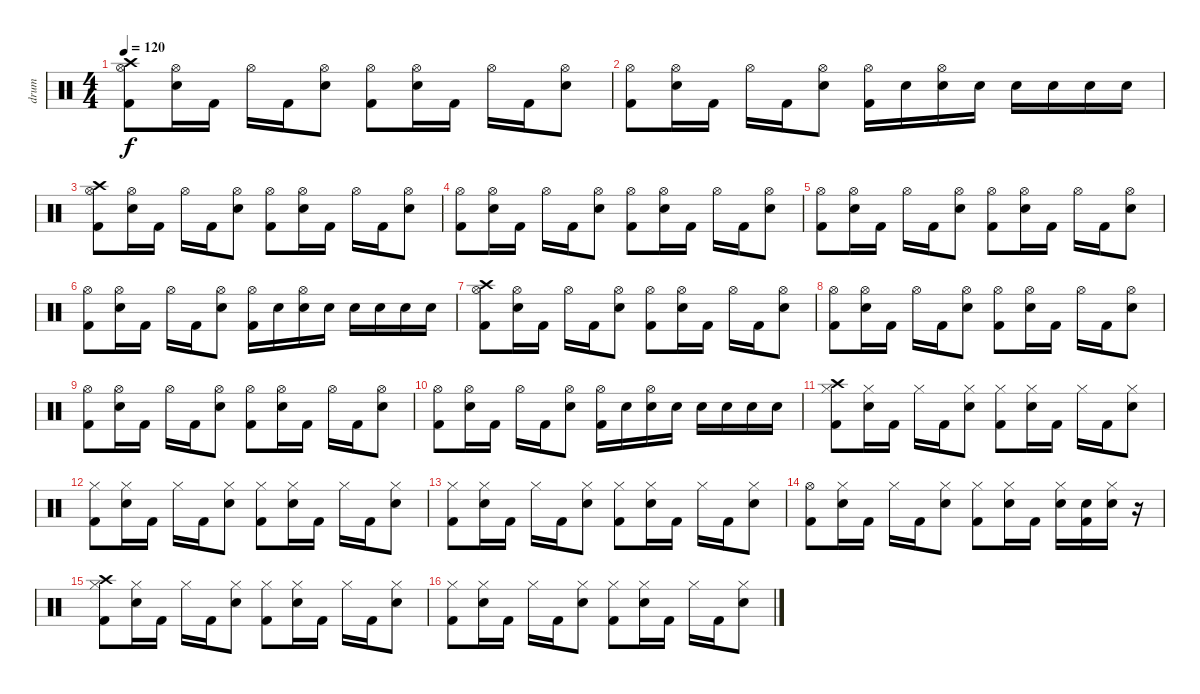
\track ("drum" "drum") {instrument percussion}
\staff {score}
\articulation defaults
\ts (4 4)
\tempo 120
\clef neutral
\ks c
("Crash high (hit)" "Kick (hit) 2" "Hi-Hat (open)").8{dy f} ("Snare (hit) 2" "Hi-Hat (open)").16 "Kick (hit) 2".16 "Hi-Hat (open)".16 "Kick (hit) 2".16 ("Snare (hit) 2" "Hi-Hat (open)").8 ("Kick (hit) 2" "Hi-Hat (open)").8 ("Snare (hit) 2" "Hi-Hat (open)").16 "Kick (hit) 2".16 "Hi-Hat (open)".16 "Kick (hit) 2".16 ("Snare (hit) 2" "Hi-Hat (open)").8 |
("Kick (hit) 2" "Hi-Hat (open)").8 ("Snare (hit) 2" "Hi-Hat (open)").16 "Kick (hit) 2".16 "Hi-Hat (open)".16 "Kick (hit) 2".16 ("Snare (hit) 2" "Hi-Hat (open)").8 ("Kick (hit) 2" "Hi-Hat (open)").16 "Snare (hit) 2".16 ("Snare (hit) 2" "Hi-Hat (open)").16 "Snare (hit) 2".16 "Snare (hit) 2".16 "Snare (hit) 2".16 "Snare (hit) 2".16 "Snare (hit) 2".16 |
("Crash high (hit)" "Kick (hit) 2" "Hi-Hat (open)").8 ("Snare (hit) 2" "Hi-Hat (open)").16 "Kick (hit) 2".16 "Hi-Hat (open)".16 "Kick (hit) 2".16 ("Snare (hit) 2" "Hi-Hat (open)").8 ("Kick (hit) 2" "Hi-Hat (open)").8 ("Snare (hit) 2" "Hi-Hat (open)").16 "Kick (hit) 2".16 "Hi-Hat (open)".16 "Kick (hit) 2".16 ("Snare (hit) 2" "Hi-Hat (open)").8 |
("Kick (hit) 2" "Hi-Hat (open)").8 ("Snare (hit) 2" "Hi-Hat (open)").16 "Kick (hit) 2".16 "Hi-Hat (open)".16 "Kick (hit) 2".16 ("Snare (hit) 2" "Hi-Hat (open)").8 ("Kick (hit) 2" "Hi-Hat (open)").8 ("Snare (hit) 2" "Hi-Hat (open)").16 "Kick (hit) 2".16 "Hi-Hat (open)".16 "Kick (hit) 2".16 ("Snare (hit) 2" "Hi-Hat (open)").8 |
("Kick (hit) 2" "Hi-Hat (open)").8 ("Snare (hit) 2" "Hi-Hat (open)").16 "Kick (hit) 2".16 "Hi-Hat (open)".16 "Kick (hit) 2".16 ("Snare (hit) 2" "Hi-Hat (open)").8 ("Kick (hit) 2" "Hi-Hat (open)").8 ("Snare (hit) 2" "Hi-Hat (open)").16 "Kick (hit) 2".16 "Hi-Hat (open)".16 "Kick (hit) 2".16 ("Snare (hit) 2" "Hi-Hat (open)").8 |
("Kick (hit) 2" "Hi-Hat (open)").8 ("Snare (hit) 2" "Hi-Hat (open)").16 "Kick (hit) 2".16 "Hi-Hat (open)".16 "Kick (hit) 2".16 ("Snare (hit) 2" "Hi-Hat (open)").8 ("Kick (hit) 2" "Hi-Hat (open)").16 "Snare (hit) 2".16 ("Snare (hit) 2" "Hi-Hat (open)").16 "Snare (hit) 2".16 "Snare (hit) 2".16 "Snare (hit) 2".16 "Snare (hit) 2".16 "Snare (hit) 2".16 |
("Crash high (hit)" "Kick (hit) 2" "Hi-Hat (open)").8 ("Snare (hit) 2" "Hi-Hat (open)").16 "Kick (hit) 2".16 "Hi-Hat (open)".16 "Kick (hit) 2".16 ("Snare (hit) 2" "Hi-Hat (open)").8 ("Kick (hit) 2" "Hi-Hat (open)").8 ("Snare (hit) 2" "Hi-Hat (open)").16 "Kick (hit) 2".16 "Hi-Hat (open)".16 "Kick (hit) 2".16 ("Snare (hit) 2" "Hi-Hat (open)").8 |
("Kick (hit) 2" "Hi-Hat (open)").8 ("Snare (hit) 2" "Hi-Hat (open)").16 "Kick (hit) 2".16 "Hi-Hat (open)".16 "Kick (hit) 2".16 ("Snare (hit) 2" "Hi-Hat (open)").8 ("Kick (hit) 2" "Hi-Hat (open)").8 ("Snare (hit) 2" "Hi-Hat (open)").16 "Kick (hit) 2".16 "Hi-Hat (open)".16 "Kick (hit) 2".16 ("Snare (hit) 2" "Hi-Hat (open)").8 |
("Kick (hit) 2" "Hi-Hat (open)").8 ("Snare (hit) 2" "Hi-Hat (open)").16 "Kick (hit) 2".16 "Hi-Hat (open)".16 "Kick (hit) 2".16 ("Snare (hit) 2" "Hi-Hat (open)").8 ("Kick (hit) 2" "Hi-Hat (open)").8 ("Snare (hit) 2" "Hi-Hat (open)").16 "Kick (hit) 2".16 "Hi-Hat (open)".16 "Kick (hit) 2".16 ("Snare (hit) 2" "Hi-Hat (open)").8 |
("Kick (hit) 2" "Hi-Hat (open)").8 ("Snare (hit) 2" "Hi-Hat (open)").16 "Kick (hit) 2".16 "Hi-Hat (open)".16 "Kick (hit) 2".16 ("Snare (hit) 2" "Hi-Hat (open)").8 ("Kick (hit) 2" "Hi-Hat (open)").16 "Snare (hit) 2".16 ("Snare (hit) 2" "Hi-Hat (open)").16 "Snare (hit) 2".16 "Snare (hit) 2".16 "Snare (hit) 2".16 "Snare (hit) 2".16 "Snare (hit) 2".16 |
("Crash high (hit)" "Kick (hit) 2" "Hi-Hat (closed)").8 ("Snare (hit) 2" "Hi-Hat (closed)").16 "Kick (hit) 2".16 "Hi-Hat (closed)".16 "Kick (hit) 2".16 ("Snare (hit) 2" "Hi-Hat (closed)").8 ("Kick (hit) 2" "Hi-Hat (closed)").8 ("Snare (hit) 2" "Hi-Hat (closed)").16 "Kick (hit) 2".16 "Hi-Hat (closed)".16 "Kick (hit) 2".16 ("Snare (hit) 2" "Hi-Hat (closed)").8 |
("Kick (hit) 2" "Hi-Hat (closed)").8 ("Snare (hit) 2" "Hi-Hat (closed)").16 "Kick (hit) 2".16 "Hi-Hat (closed)".16 "Kick (hit) 2".16 ("Snare (hit) 2" "Hi-Hat (closed)").8 ("Kick (hit) 2" "Hi-Hat (closed)").8 ("Snare (hit) 2" "Hi-Hat (closed)").16 "Kick (hit) 2".16 "Hi-Hat (closed)".16 "Kick (hit) 2".16 ("Snare (hit) 2" "Hi-Hat (closed)").8 |
("Kick (hit) 2" "Hi-Hat (closed)").8 ("Snare (hit) 2" "Hi-Hat (closed)").16 "Kick (hit) 2".16 "Hi-Hat (closed)".16 "Kick (hit) 2".16 ("Snare (hit) 2" "Hi-Hat (closed)").8 ("Kick (hit) 2" "Hi-Hat (closed)").8 ("Snare (hit) 2" "Hi-Hat (closed)").16 "Kick (hit) 2".16 "Hi-Hat (closed)".16 "Kick (hit) 2".16 ("Snare (hit) 2" "Hi-Hat (closed)").8 |
("Kick (hit) 2" "Hi-Hat (open)").8 ("Snare (hit) 2" "Hi-Hat (closed)").16 "Kick (hit) 2".16 "Hi-Hat (closed)".16 "Kick (hit) 2".16 ("Snare (hit) 2" "Hi-Hat (closed)").8 ("Kick (hit) 2" "Hi-Hat (closed)").8 ("Snare (hit) 2" "Hi-Hat (closed)").16 "Kick (hit) 2".16 ("Snare (hit) 2" "Hi-Hat (closed)").16 ("Snare (hit) 2" "Kick (hit) 2").16 ("Snare (hit) 2" "Hi-Hat (closed)").16 r.16 |
("Crash high (hit)" "Kick (hit) 2" "Hi-Hat (closed)").8 ("Snare (hit) 2" "Hi-Hat (closed)").16 "Kick (hit) 2".16 "Hi-Hat (closed)".16 "Kick (hit) 2".16 ("Snare (hit) 2" "Hi-Hat (closed)").8 ("Kick (hit) 2" "Hi-Hat (closed)").8 ("Snare (hit) 2" "Hi-Hat (closed)").16 "Kick (hit) 2".16 "Hi-Hat (closed)".16 "Kick (hit) 2".16 ("Snare (hit) 2" "Hi-Hat (closed)").8 |
("Kick (hit) 2" "Hi-Hat (closed)").8 ("Snare (hit) 2" "Hi-Hat (closed)").16 "Kick (hit) 2".16 "Hi-Hat (closed)".16 "Kick (hit) 2".16 ("Snare (hit) 2" "Hi-Hat (closed)").8 ("Kick (hit) 2" "Hi-Hat (closed)").8 ("Snare (hit) 2" "Hi-Hat (closed)").16 "Kick (hit) 2".16 "Hi-Hat (closed)".16 "Kick (hit) 2".16 ("Snare (hit) 2" "Hi-Hat (closed)").8
